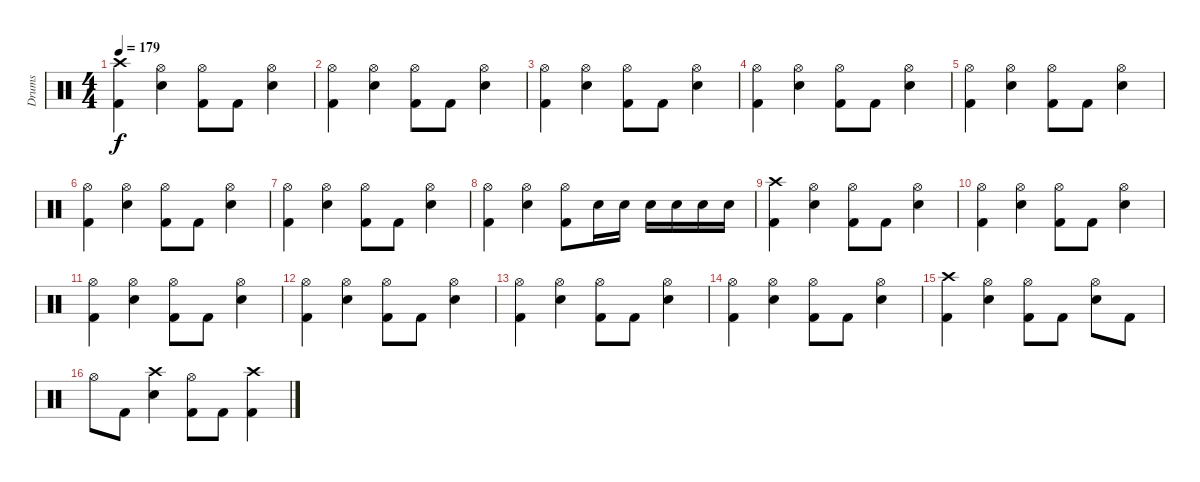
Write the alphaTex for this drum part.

\track ("Drums" "Drums") {instrument percussion}
\staff {score}
\articulation defaults
\ts (4 4)
\tempo 179
\clef neutral
\ks c
("Crash high (hit)" "Kick (hit) 2").4{dy f} ("Hi-Hat (open)" "Snare (hit) 2").4 ("Hi-Hat (open)" "Kick (hit) 2").8 "Kick (hit) 2".8 ("Hi-Hat (open)" "Snare (hit) 2").4 |
("Hi-Hat (open)" "Kick (hit) 2").4 ("Hi-Hat (open)" "Snare (hit) 2").4 ("Hi-Hat (open)" "Kick (hit) 2").8 "Kick (hit) 2".8 ("Hi-Hat (open)" "Snare (hit) 2").4 |
("Hi-Hat (open)" "Kick (hit) 2").4 ("Hi-Hat (open)" "Snare (hit) 2").4 ("Hi-Hat (open)" "Kick (hit) 2").8 "Kick (hit) 2".8 ("Hi-Hat (open)" "Snare (hit) 2").4 |
("Hi-Hat (open)" "Kick (hit) 2").4 ("Hi-Hat (open)" "Snare (hit) 2").4 ("Hi-Hat (open)" "Kick (hit) 2").8 "Kick (hit) 2".8 ("Hi-Hat (open)" "Snare (hit) 2").4 |
("Hi-Hat (open)" "Kick (hit) 2").4 ("Hi-Hat (open)" "Snare (hit) 2").4 ("Hi-Hat (open)" "Kick (hit) 2").8 "Kick (hit) 2".8 ("Hi-Hat (open)" "Snare (hit) 2").4 |
("Hi-Hat (open)" "Kick (hit) 2").4 ("Hi-Hat (open)" "Snare (hit) 2").4 ("Hi-Hat (open)" "Kick (hit) 2").8 "Kick (hit) 2".8 ("Hi-Hat (open)" "Snare (hit) 2").4 |
("Hi-Hat (open)" "Kick (hit) 2").4 ("Hi-Hat (open)" "Snare (hit) 2").4 ("Hi-Hat (open)" "Kick (hit) 2").8 "Kick (hit) 2".8 ("Hi-Hat (open)" "Snare (hit) 2").4 |
("Hi-Hat (open)" "Kick (hit) 2").4 ("Hi-Hat (open)" "Snare (hit) 2").4 ("Hi-Hat (open)" "Kick (hit) 2").8 "Snare (hit) 2".16 "Snare (hit) 2".16 "Snare (hit) 2".16 "Snare (hit) 2".16 "Snare (hit) 2".16 "Snare (hit) 2".16 |
("Crash high (hit)" "Kick (hit) 2").4 ("Hi-Hat (open)" "Snare (hit) 2").4 ("Hi-Hat (open)" "Kick (hit) 2").8 "Kick (hit) 2".8 ("Hi-Hat (open)" "Snare (hit) 2").4 |
("Hi-Hat (open)" "Kick (hit) 2").4 ("Hi-Hat (open)" "Snare (hit) 2").4 ("Hi-Hat (open)" "Kick (hit) 2").8 "Kick (hit) 2".8 ("Hi-Hat (open)" "Snare (hit) 2").4 |
("Hi-Hat (open)" "Kick (hit) 2").4 ("Hi-Hat (open)" "Snare (hit) 2").4 ("Hi-Hat (open)" "Kick (hit) 2").8 "Kick (hit) 2".8 ("Hi-Hat (open)" "Snare (hit) 2").4 |
("Hi-Hat (open)" "Kick (hit) 2").4 ("Hi-Hat (open)" "Snare (hit) 2").4 ("Hi-Hat (open)" "Kick (hit) 2").8 "Kick (hit) 2".8 ("Hi-Hat (open)" "Snare (hit) 2").4 |
("Hi-Hat (open)" "Kick (hit) 2").4 ("Hi-Hat (open)" "Snare (hit) 2").4 ("Hi-Hat (open)" "Kick (hit) 2").8 "Kick (hit) 2".8 ("Hi-Hat (open)" "Snare (hit) 2").4 |
("Hi-Hat (open)" "Kick (hit) 2").4 ("Hi-Hat (open)" "Snare (hit) 2").4 ("Hi-Hat (open)" "Kick (hit) 2").8 "Kick (hit) 2".8 ("Hi-Hat (open)" "Snare (hit) 2").4 |
("Crash high (hit)" "Kick (hit) 2").4 ("Hi-Hat (open)" "Snare (hit) 2").4 ("Hi-Hat (open)" "Kick (hit) 2").8 "Kick (hit) 2".8 ("Hi-Hat (open)" "Snare (hit) 2").8 "Kick (hit) 2".8 |
"Hi-Hat (open)".8 "Kick (hit) 2".8 ("Crash high (hit)" "Snare (hit) 2").4 ("Hi-Hat (open)" "Kick (hit) 2").8 "Kick (hit) 2".8 ("Crash high (hit)" "Kick (hit) 2").4
